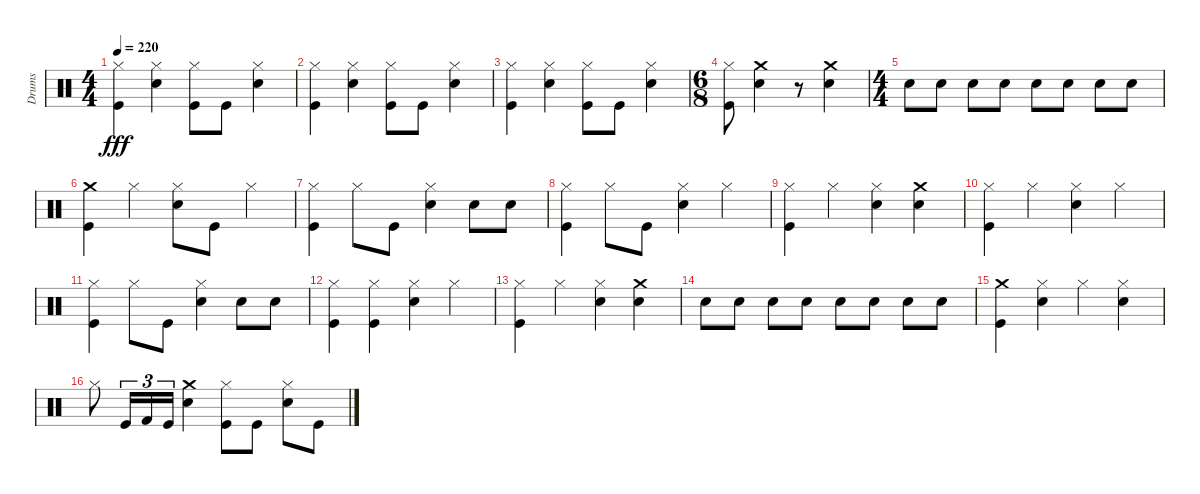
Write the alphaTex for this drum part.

\track ("Drums" "Drums") {instrument percussion}
\staff {score}
\articulation defaults
\ts (4 4)
\tempo 220
\clef neutral
\ks c
("Hi-Hat (closed)" "Kick (hit)").4{dy fff} ("Snare (hit) 2" "Hi-Hat (closed)").4 ("Kick (hit)" "Hi-Hat (closed)").8 "Kick (hit)".8 ("Snare (hit) 2" "Hi-Hat (closed)").4 |
("Kick (hit)" "Hi-Hat (closed)").4 ("Snare (hit) 2" "Hi-Hat (closed)").4 ("Hi-Hat (closed)" "Kick (hit)").8 "Kick (hit)".8 ("Snare (hit) 2" "Hi-Hat (closed)").4 |
("Kick (hit)" "Hi-Hat (closed)").4 ("Snare (hit) 2" "Hi-Hat (closed)").4 ("Kick (hit)" "Hi-Hat (closed)").8 "Kick (hit)".8 ("Hi-Hat (closed)" "Snare (hit) 2").4 |
\ts (6 8)
("Hi-Hat (closed)" "Kick (hit)").8 ("Snare (hit) 2" "Crash medium (hit)").4 r.8 ("Snare (hit) 2" "Crash medium (hit)").4 |
\ts (4 4)
"Snare (hit) 2".8 "Snare (hit) 2".8 "Snare (hit) 2".8 "Snare (hit) 2".8 "Snare (hit) 2".8 "Snare (hit) 2".8 "Snare (hit) 2".8 "Snare (hit) 2".8 |
("Kick (hit)" "Crash medium (hit)").4 "Hi-Hat (closed)".4 ("Snare (hit) 2" "Hi-Hat (closed)").8 "Kick (hit)".8 "Hi-Hat (closed)".4 |
("Kick (hit)" "Hi-Hat (closed)").4 "Hi-Hat (closed)".8 "Kick (hit)".8 ("Hi-Hat (closed)" "Snare (hit) 2").4 "Snare (hit) 2".8 "Snare (hit) 2".8 |
("Hi-Hat (closed)" "Kick (hit)").4 "Hi-Hat (closed)".8 "Kick (hit)".8 ("Snare (hit) 2" "Hi-Hat (closed)").4 "Hi-Hat (closed)".4 |
("Kick (hit)" "Hi-Hat (closed)").4 "Hi-Hat (closed)".4 ("Hi-Hat (closed)" "Snare (hit) 2").4 ("Snare (hit) 2" "Crash medium (hit)").4 |
("Kick (hit)" "Hi-Hat (closed)").4 "Hi-Hat (closed)".4 ("Snare (hit) 2" "Hi-Hat (closed)").4 "Hi-Hat (closed)".4 |
("Kick (hit)" "Hi-Hat (closed)").4 "Hi-Hat (closed)".8 "Kick (hit)".8 ("Snare (hit) 2" "Hi-Hat (closed)").4 "Snare (hit) 2".8 "Snare (hit) 2".8 |
("Kick (hit)" "Hi-Hat (closed)").4 ("Kick (hit)" "Hi-Hat (closed)").4 ("Snare (hit) 2" "Hi-Hat (closed)").4 "Hi-Hat (closed)".4 |
("Kick (hit)" "Hi-Hat (closed)").4 "Hi-Hat (closed)".4 ("Snare (hit) 2" "Hi-Hat (closed)").4 ("Snare (hit) 2" "Crash medium (hit)").4 |
"Snare (hit) 2".8 "Snare (hit) 2".8 "Snare (hit) 2".8 "Snare (hit) 2".8 "Snare (hit) 2".8 "Snare (hit) 2".8 "Snare (hit) 2".8 "Snare (hit) 2".8 |
("Kick (hit)" "Crash medium (hit)").4 ("Hi-Hat (closed)" "Snare (hit) 2").4 "Hi-Hat (closed)".4 ("Snare (hit) 2" "Hi-Hat (closed)").4 |
"Hi-Hat (closed)".8 "Kick (hit)".16{tu (3 2)} "Kick (hit) 2".16{tu (3 2)} "Kick (hit)".16{tu (3 2)} ("Snare (hit) 2" "Crash medium (hit)").4 ("Kick (hit)" "Hi-Hat (closed)").8 "Kick (hit)".8 ("Snare (hit) 2" "Hi-Hat (closed)").8 "Kick (hit)".8
